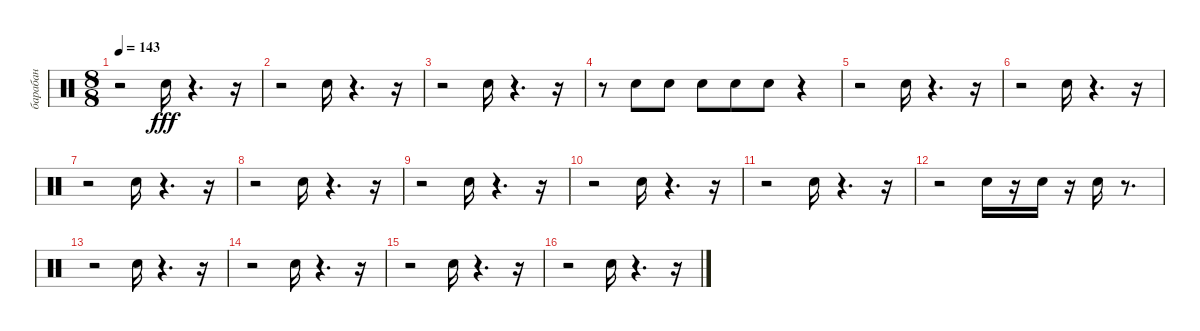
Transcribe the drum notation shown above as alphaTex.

\track ("барабан" "барабан") {instrument percussion}
\staff {score}
\articulation defaults
\ts (8 8)
\tempo 143
\clef neutral
\ks c
r.2{dy fff} "Snare (hit) 2".16 r.4{d} r.16 |
r.2 "Snare (hit) 2".16 r.4{d} r.16 |
r.2 "Snare (hit) 2".16 r.4{d} r.16 |
r.8 "Snare (hit) 2".8 "Snare (hit) 2".8 "Snare (hit) 2".8 "Snare (hit) 2".8 "Snare (hit) 2".8 r.4 |
r.2 "Snare (hit) 2".16 r.4{d} r.16 |
r.2 "Snare (hit) 2".16 r.4{d} r.16 |
r.2 "Snare (hit) 2".16 r.4{d} r.16 |
r.2 "Snare (hit) 2".16 r.4{d} r.16 |
r.2 "Snare (hit) 2".16 r.4{d} r.16 |
r.2 "Snare (hit) 2".16 r.4{d} r.16 |
r.2 "Snare (hit) 2".16 r.4{d} r.16 |
r.2 "Snare (hit) 2".16 r.16 "Snare (hit) 2".16 r.16 "Snare (hit) 2".16 r.8{d} |
r.2 "Snare (hit) 2".16 r.4{d} r.16 |
r.2 "Snare (hit) 2".16 r.4{d} r.16 |
r.2 "Snare (hit) 2".16 r.4{d} r.16 |
r.2 "Snare (hit) 2".16 r.4{d} r.16
